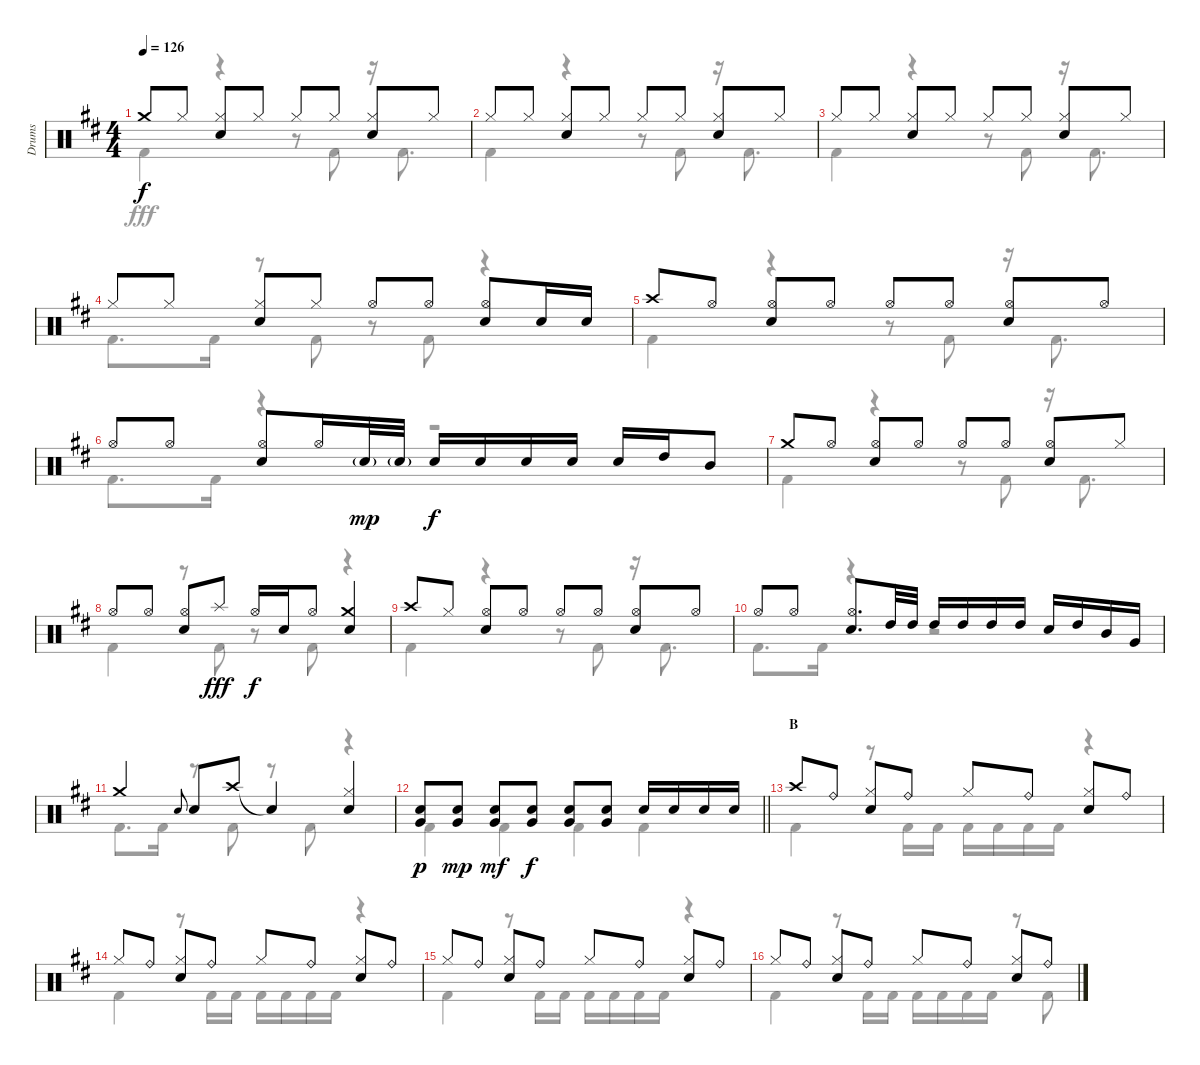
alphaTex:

\track ("Drums" "Drums") {instrument percussion}
\staff {score}
\articulation defaults
\voice
\ts (4 4)
\tempo 126
\clef neutral
\ks d "Crash medium (hit)".8{dy f} "Hi-Hat (closed)".8
("Hi-Hat (closed)" "Snare (hit) 2").8 "Hi-Hat (closed)".8 "Hi-Hat (closed)".8 "Hi-Hat (closed)".8 ("Hi-Hat (closed)" "Snare (hit) 2").8 "Hi-Hat (closed)".8 |
"Hi-Hat (closed)".8 "Hi-Hat (closed)".8 ("Hi-Hat (closed)" "Snare (hit) 2").8 "Hi-Hat (closed)".8 "Hi-Hat (closed)".8 "Hi-Hat (closed)".8 ("Hi-Hat (closed)" "Snare (hit) 2").8 "Hi-Hat (closed)".8 |
"Hi-Hat (closed)".8 "Hi-Hat (closed)".8 ("Hi-Hat (closed)" "Snare (hit) 2").8 "Hi-Hat (closed)".8 "Hi-Hat (closed)".8 "Hi-Hat (closed)".8 ("Hi-Hat (closed)" "Snare (hit) 2").8 "Hi-Hat (closed)".8 |
"Hi-Hat (closed)".8 "Hi-Hat (closed)".8 ("Hi-Hat (closed)" "Snare (hit) 2").8 "Hi-Hat (closed)".8 "Hi-Hat (open)".8 "Hi-Hat (open)".8 ("Hi-Hat (open)" "Snare (hit) 2").8 "Snare (hit) 2".16 "Snare (hit) 2".16 |
"Crash high (hit)".8 "Hi-Hat (open)".8 ("Hi-Hat (open)" "Snare (hit) 2").8 "Hi-Hat (open)".8 "Hi-Hat (open)".8 "Hi-Hat (open)".8 ("Hi-Hat (open)" "Snare (hit) 2").8 "Hi-Hat (open)".8 |
"Hi-Hat (open)".8 "Hi-Hat (open)".8 ("Hi-Hat (open)" "Snare (hit) 2").8 "Hi-Hat (open)".16 "Snare (hit) 2"{g}.32{dy mp} "Snare (hit) 2"{g}.32 "Snare (hit) 2".16{dy f} "Snare (hit) 2".16 "Snare (hit) 2".16 "Snare (hit) 2".16 "Snare (hit) 2".16 "High Tom (hit)".16 "Mid Tom (hit)".8 |
"Crash medium (hit)".8 "Hi-Hat (open)".8 ("Hi-Hat (open)" "Snare (hit) 2").8 "Hi-Hat (open)".8 "Hi-Hat (open)".8 "Hi-Hat (open)".8 ("Hi-Hat (open)" "Snare (hit) 2").8 "Hi-Hat (closed)".8 |
"Hi-Hat (open)".8 "Hi-Hat (open)".8 ("Hi-Hat (open)" "Snare (hit) 2").8 "Splash (hit)".8{dy fff} "Hi-Hat (open)".16{dy f} "Snare (hit) 2".16 "Hi-Hat (open)".8 ("Crash medium (hit)" "Snare (hit) 2").4 |
"Crash high (hit)".8 "Hi-Hat (closed)".8 ("Hi-Hat (open)" "Snare (hit) 2").8 "Hi-Hat (open)".8 "Hi-Hat (open)".8 "Hi-Hat (open)".8 ("Hi-Hat (open)" "Snare (hit) 2").8 "Hi-Hat (open)".8 |
"Hi-Hat (open)".8 "Hi-Hat (open)".8 ("Hi-Hat (open)" "Snare (hit) 2").8{d} "High Tom (hit)".32 "High Tom (hit)".32 "High Tom (hit)".16 "High Tom (hit)".16 "High Tom (hit)".16 "High Tom (hit)".16 "Snare (hit) 2".16 "High Tom (hit)".16 "Mid Tom (hit)".16 "Very Low Tom (hit)".16 |
"Crash medium (hit)".4 "Snare (hit) 2".8{gr onbeat} "Snare (hit) 2".8 "Crash high (hit)".8 "Snare (hit)"{t}.4 ("Hi-Hat (closed)" "Snare (hit) 2").4 |
\barLineRight lightlight
("Snare (hit) 2" "Very Low Tom (hit)").8{dy p} ("Snare (hit) 2" "Very Low Tom (hit)").8{dy mp} ("Snare (hit) 2" "Very Low Tom (hit)").8{dy mf} ("Snare (hit) 2" "Very Low Tom (hit)").8{dy f} ("Snare (hit) 2" "Very Low Tom (hit)").8 ("Snare (hit) 2" "Very Low Tom (hit)").8 "Snare (hit) 2".16 "Snare (hit) 2".16 "Snare (hit) 2".16 "Snare (hit) 2".16 |
\section ("" "B")
"Crash high (hit)".8 "Ride (bell)".8 ("Hi-Hat (closed)" "Snare (hit) 2").8 "Ride (bell)".8 "Hi-Hat (closed)".8 "Ride (bell)".8 ("Hi-Hat (closed)" "Snare (hit) 2").8 "Ride (bell)".8 |
"Hi-Hat (closed)".8 "Ride (bell)".8 ("Hi-Hat (closed)" "Snare (hit) 2").8 "Ride (bell)".8 "Hi-Hat (closed)".8 "Ride (bell)".8 ("Hi-Hat (closed)" "Snare (hit) 2").8 "Ride (bell)".8 |
"Hi-Hat (closed)".8 "Ride (bell)".8 ("Hi-Hat (closed)" "Snare (hit) 2").8 "Ride (bell)".8 "Hi-Hat (closed)".8 "Ride (bell)".8 ("Hi-Hat (closed)" "Snare (hit) 2").8 "Ride (bell)".8 |
"Hi-Hat (closed)".8 "Ride (bell)".8 ("Hi-Hat (closed)" "Snare (hit) 2").8 "Ride (bell)".8 "Hi-Hat (closed)".8 "Ride (bell)".8 ("Hi-Hat (closed)" "Snare (hit) 2").8 "Ride (bell)".8
\voice
\clef neutral
\ottava regular
\simile none
\ks d "Kick (hit) 2".4{dy fff}
r.4 r.8 "Kick (hit) 2".8 r.16 "Kick (hit) 2".8{d} |
"Kick (hit) 2".4 r.4 r.8 "Kick (hit) 2".8 r.16 "Kick (hit) 2".8{d} |
"Kick (hit) 2".4 r.4 r.8 "Kick (hit) 2".8 r.16 "Kick (hit) 2".8{d} |
"Kick (hit) 2".8{d} "Kick (hit) 2".16 r.8 "Kick (hit) 2".8 r.8 "Kick (hit) 2".8 r.4 |
"Kick (hit) 2".4 r.4 r.8 "Kick (hit) 2".8 r.16 "Kick (hit) 2".8{d} |
"Kick (hit) 2".8{d} "Kick (hit) 2".16 r.4 r.2 |
"Kick (hit) 2".4 r.4 r.8 "Kick (hit) 2".8 r.16 "Kick (hit) 2".8{d} |
"Kick (hit) 2".4 r.8 "Kick (hit) 2".8 r.8 "Kick (hit) 2".8 r.4 |
"Kick (hit) 2".4 r.4 r.8 "Kick (hit) 2".8 r.16 "Kick (hit) 2".8{d} |
"Kick (hit) 2".8{d} "Kick (hit) 2".16 r.4 r.2 |
"Kick (hit) 2".8{d} "Kick (hit) 2".16 r.8 "Kick (hit) 2".8 r.8 "Kick (hit) 2".8 r.4 |
\barLineRight lightlight "Kick (hit) 2".4 "Kick (hit) 2".4 "Kick (hit) 2".4 "Kick (hit) 2".4
|
"Kick (hit) 2".4 r.8 "Kick (hit) 2".16 "Kick (hit) 2".16 "Kick (hit) 2".16 "Kick (hit) 2".16 "Kick (hit) 2".16 "Kick (hit) 2".16 r.4 |
"Kick (hit) 2".4 r.8 "Kick (hit) 2".16 "Kick (hit) 2".16 "Kick (hit) 2".16 "Kick (hit) 2".16 "Kick (hit) 2".16 "Kick (hit) 2".16 r.4 |
"Kick (hit) 2".4 r.8 "Kick (hit) 2".16 "Kick (hit) 2".16 "Kick (hit) 2".16 "Kick (hit) 2".16 "Kick (hit) 2".16 "Kick (hit) 2".16 r.4 |
"Kick (hit) 2".4 r.8 "Kick (hit) 2".16 "Kick (hit) 2".16 "Kick (hit) 2".16 "Kick (hit) 2".16 "Kick (hit) 2".16 "Kick (hit) 2".16 r.8 "Kick (hit) 2".8
